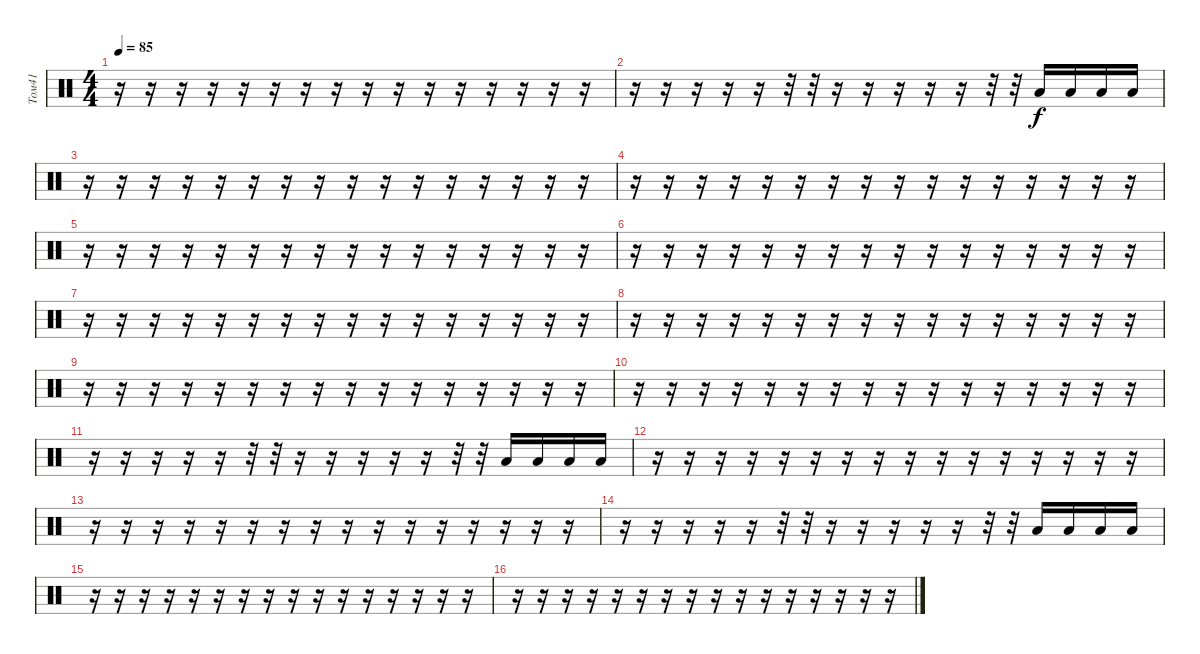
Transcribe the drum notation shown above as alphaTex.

\track ("Том41" "Том41") {instrument percussion}
\staff {score}
\articulation defaults
\ts (4 4)
\tempo 85
\clef neutral
\ks c
r.16{dy f} r.16 r.16 r.16 r.16 r.16 r.16 r.16 r.16 r.16 r.16 r.16 r.16 r.16 r.16 r.16 |
r.16 r.16 r.16 r.16 r.16 r.32 r.32 r.16 r.16 r.16 r.16 r.16 r.32 r.32 "Low Floor Tom (hit)".16 "Low Floor Tom (hit)".16 "Low Floor Tom (hit)".16 "Low Floor Tom (hit)".16 |
r.16 r.16 r.16 r.16 r.16 r.16 r.16 r.16 r.16 r.16 r.16 r.16 r.16 r.16 r.16 r.16 |
r.16 r.16 r.16 r.16 r.16 r.16 r.16 r.16 r.16 r.16 r.16 r.16 r.16 r.16 r.16 r.16 |
r.16 r.16 r.16 r.16 r.16 r.16 r.16 r.16 r.16 r.16 r.16 r.16 r.16 r.16 r.16 r.16 |
r.16 r.16 r.16 r.16 r.16 r.16 r.16 r.16 r.16 r.16 r.16 r.16 r.16 r.16 r.16 r.16 |
r.16 r.16 r.16 r.16 r.16 r.16 r.16 r.16 r.16 r.16 r.16 r.16 r.16 r.16 r.16 r.16 |
r.16 r.16 r.16 r.16 r.16 r.16 r.16 r.16 r.16 r.16 r.16 r.16 r.16 r.16 r.16 r.16 |
r.16 r.16 r.16 r.16 r.16 r.16 r.16 r.16 r.16 r.16 r.16 r.16 r.16 r.16 r.16 r.16 |
r.16 r.16 r.16 r.16 r.16 r.16 r.16 r.16 r.16 r.16 r.16 r.16 r.16 r.16 r.16 r.16 |
r.16 r.16 r.16 r.16 r.16 r.32 r.32 r.16 r.16 r.16 r.16 r.16 r.32 r.32 "Low Floor Tom (hit)".16 "Low Floor Tom (hit)".16 "Low Floor Tom (hit)".16 "Low Floor Tom (hit)".16 |
r.16 r.16 r.16 r.16 r.16 r.16 r.16 r.16 r.16 r.16 r.16 r.16 r.16 r.16 r.16 r.16 |
r.16 r.16 r.16 r.16 r.16 r.16 r.16 r.16 r.16 r.16 r.16 r.16 r.16 r.16 r.16 r.16 |
r.16 r.16 r.16 r.16 r.16 r.32 r.32 r.16 r.16 r.16 r.16 r.16 r.32 r.32 "Low Floor Tom (hit)".16 "Low Floor Tom (hit)".16 "Low Floor Tom (hit)".16 "Low Floor Tom (hit)".16 |
r.16 r.16 r.16 r.16 r.16 r.16 r.16 r.16 r.16 r.16 r.16 r.16 r.16 r.16 r.16 r.16 |
r.16 r.16 r.16 r.16 r.16 r.16 r.16 r.16 r.16 r.16 r.16 r.16 r.16 r.16 r.16 r.16
